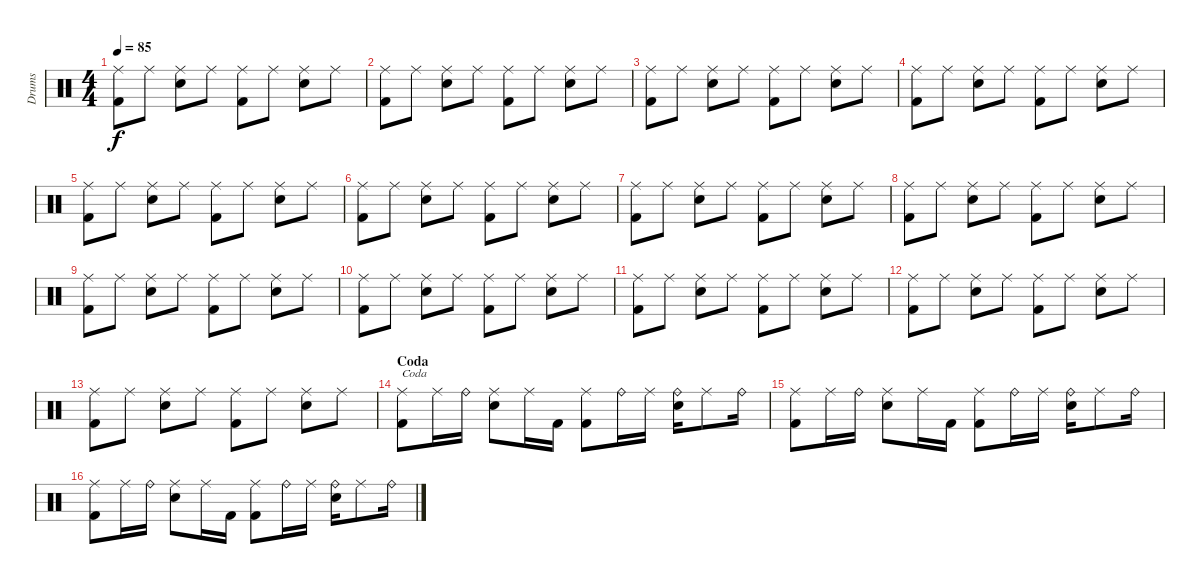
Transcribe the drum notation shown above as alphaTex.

\track ("Drums" "Drums") {instrument percussion}
\staff {score}
\articulation defaults
\ts (4 4)
\tempo 85
\clef neutral
\ks c
("Ride (middle)" "Kick (hit) 2").8{dy f} "Ride (middle)".8 ("Ride (middle)" "Snare (hit) 2").8 "Ride (middle)".8 ("Ride (middle)" "Kick (hit) 2").8 "Ride (middle)".8 ("Ride (middle)" "Snare (hit) 2").8 "Ride (middle)".8 |
("Ride (middle)" "Kick (hit) 2").8 "Ride (middle)".8 ("Ride (middle)" "Snare (hit) 2").8 "Ride (middle)".8 ("Ride (middle)" "Kick (hit) 2").8 "Ride (middle)".8 ("Ride (middle)" "Snare (hit) 2").8 "Ride (middle)".8 |
("Ride (middle)" "Kick (hit) 2").8 "Ride (middle)".8 ("Ride (middle)" "Snare (hit) 2").8 "Ride (middle)".8 ("Ride (middle)" "Kick (hit) 2").8 "Ride (middle)".8 ("Ride (middle)" "Snare (hit) 2").8 "Ride (middle)".8 |
("Ride (middle)" "Kick (hit) 2").8 "Ride (middle)".8 ("Ride (middle)" "Snare (hit) 2").8 "Ride (middle)".8 ("Ride (middle)" "Kick (hit) 2").8 "Ride (middle)".8 ("Ride (middle)" "Snare (hit) 2").8 "Ride (middle)".8 |
("Ride (middle)" "Kick (hit) 2").8 "Ride (middle)".8 ("Ride (middle)" "Snare (hit) 2").8 "Ride (middle)".8 ("Ride (middle)" "Kick (hit) 2").8 "Ride (middle)".8 ("Ride (middle)" "Snare (hit) 2").8 "Ride (middle)".8 |
("Ride (middle)" "Kick (hit) 2").8 "Ride (middle)".8 ("Ride (middle)" "Snare (hit) 2").8 "Ride (middle)".8 ("Ride (middle)" "Kick (hit) 2").8 "Ride (middle)".8 ("Ride (middle)" "Snare (hit) 2").8 "Ride (middle)".8 |
("Ride (middle)" "Kick (hit) 2").8 "Ride (middle)".8 ("Ride (middle)" "Snare (hit) 2").8 "Ride (middle)".8 ("Ride (middle)" "Kick (hit) 2").8 "Ride (middle)".8 ("Ride (middle)" "Snare (hit) 2").8 "Ride (middle)".8 |
("Ride (middle)" "Kick (hit) 2").8 "Ride (middle)".8 ("Ride (middle)" "Snare (hit) 2").8 "Ride (middle)".8 ("Ride (middle)" "Kick (hit) 2").8 "Ride (middle)".8 ("Ride (middle)" "Snare (hit) 2").8 "Ride (middle)".8 |
("Ride (middle)" "Kick (hit) 2").8 "Ride (middle)".8 ("Ride (middle)" "Snare (hit) 2").8 "Ride (middle)".8 ("Ride (middle)" "Kick (hit) 2").8 "Ride (middle)".8 ("Ride (middle)" "Snare (hit) 2").8 "Ride (middle)".8 |
("Ride (middle)" "Kick (hit) 2").8 "Ride (middle)".8 ("Ride (middle)" "Snare (hit) 2").8 "Ride (middle)".8 ("Ride (middle)" "Kick (hit) 2").8 "Ride (middle)".8 ("Ride (middle)" "Snare (hit) 2").8 "Ride (middle)".8 |
("Ride (middle)" "Kick (hit) 2").8 "Ride (middle)".8 ("Ride (middle)" "Snare (hit) 2").8 "Ride (middle)".8 ("Ride (middle)" "Kick (hit) 2").8 "Ride (middle)".8 ("Ride (middle)" "Snare (hit) 2").8 "Ride (middle)".8 |
("Ride (middle)" "Kick (hit) 2").8 "Ride (middle)".8 ("Ride (middle)" "Snare (hit) 2").8 "Ride (middle)".8 ("Ride (middle)" "Kick (hit) 2").8 "Ride (middle)".8 ("Ride (middle)" "Snare (hit) 2").8 "Ride (middle)".8 |
("Ride (middle)" "Kick (hit) 2").8 "Ride (middle)".8 ("Ride (middle)" "Snare (hit) 2").8 "Ride (middle)".8 ("Ride (middle)" "Kick (hit) 2").8 "Ride (middle)".8 ("Ride (middle)" "Snare (hit) 2").8 "Ride (middle)".8 |
\section ("" "Coda")
("Ride (middle)" "Kick (hit) 2").8{txt "Coda"} "Ride (middle)".16 "Ride (bell)".16 ("Ride (middle)" "Snare (hit) 2").8 "Ride (middle)".16 "Kick (hit) 2".16 ("Ride (middle)" "Kick (hit) 2").8 "Ride (bell)".16 "Ride (middle)".16 ("Ride (bell)" "Snare (hit) 2").16 "Ride (middle)".8 "Ride (bell)".16 |
("Ride (middle)" "Kick (hit) 2").8 "Ride (middle)".16 "Ride (bell)".16 ("Ride (middle)" "Snare (hit) 2").8 "Ride (middle)".16 "Kick (hit) 2".16 ("Ride (middle)" "Kick (hit) 2").8 "Ride (bell)".16 "Ride (middle)".16 ("Ride (bell)" "Snare (hit) 2").16 "Ride (middle)".8 "Ride (bell)".16 |
("Ride (middle)" "Kick (hit) 2").8 "Ride (middle)".16 "Ride (bell)".16 ("Ride (middle)" "Snare (hit) 2").8 "Ride (middle)".16 "Kick (hit) 2".16 ("Ride (middle)" "Kick (hit) 2").8 "Ride (bell)".16 "Ride (middle)".16 ("Ride (bell)" "Snare (hit) 2").16 "Ride (middle)".8 "Ride (bell)".16
